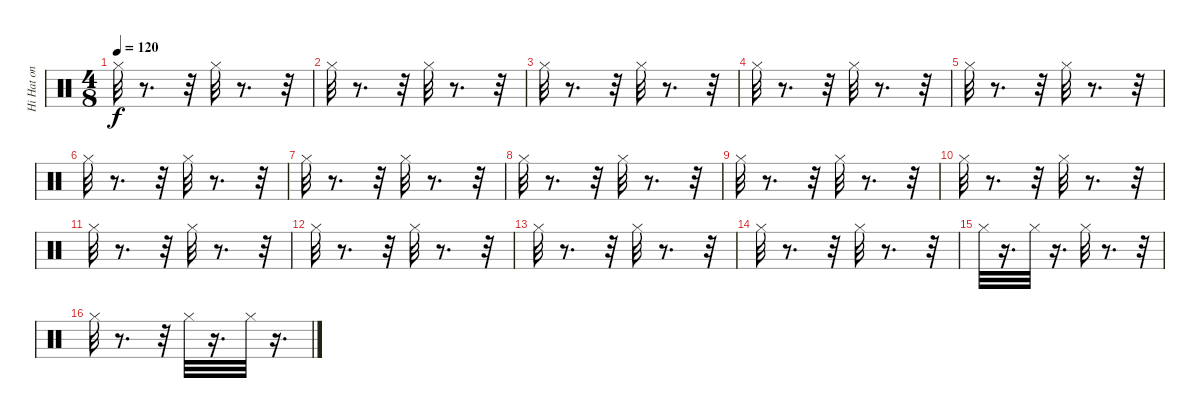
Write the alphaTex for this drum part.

\track ("Hi Hat on BD" "Hi Hat on ") {instrument percussion}
\staff {score}
\articulation defaults
\ts (4 8)
\tempo 120
\clef neutral
\ks c "Hi-Hat (closed)".32{dy f}
r.8{d} r.32 "Hi-Hat (closed)".32 r.8{d} r.32 |
"Hi-Hat (closed)".32 r.8{d} r.32 "Hi-Hat (closed)".32 r.8{d} r.32 |
"Hi-Hat (closed)".32 r.8{d} r.32 "Hi-Hat (closed)".32 r.8{d} r.32 |
"Hi-Hat (closed)".32 r.8{d} r.32 "Hi-Hat (closed)".32 r.8{d} r.32 |
"Hi-Hat (closed)".32 r.8{d} r.32 "Hi-Hat (closed)".32 r.8{d} r.32 |
"Hi-Hat (closed)".32 r.8{d} r.32 "Hi-Hat (closed)".32 r.8{d} r.32 |
"Hi-Hat (closed)".32 r.8{d} r.32 "Hi-Hat (closed)".32 r.8{d} r.32 |
"Hi-Hat (closed)".32 r.8{d} r.32 "Hi-Hat (closed)".32 r.8{d} r.32 |
"Hi-Hat (closed)".32 r.8{d} r.32 "Hi-Hat (closed)".32 r.8{d} r.32 |
"Hi-Hat (closed)".32 r.8{d} r.32 "Hi-Hat (closed)".32 r.8{d} r.32 |
"Hi-Hat (closed)".32 r.8{d} r.32 "Hi-Hat (closed)".32 r.8{d} r.32 |
"Hi-Hat (closed)".32 r.8{d} r.32 "Hi-Hat (closed)".32 r.8{d} r.32 |
"Hi-Hat (closed)".32 r.8{d} r.32 "Hi-Hat (closed)".32 r.8{d} r.32 |
"Hi-Hat (closed)".32 r.8{d} r.32 "Hi-Hat (closed)".32 r.8{d} r.32 |
"Hi-Hat (closed)".32 r.16{d} "Hi-Hat (closed)".32 r.16{d} "Hi-Hat (closed)".32 r.8{d} r.32 |
"Hi-Hat (closed)".32 r.8{d} r.32 "Hi-Hat (closed)".32 r.16{d} "Hi-Hat (closed)".32 r.16{d}
